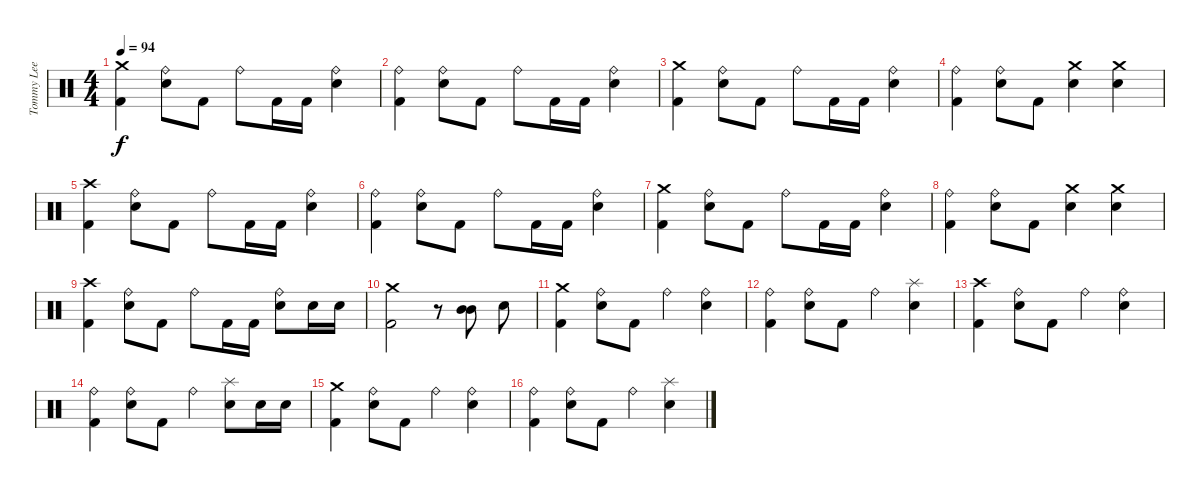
\track ("Tommy Lee" "Tommy Lee") {instrument percussion}
\staff {score}
\articulation defaults
\ts (4 4)
\tempo 94
\clef neutral
\ks c
("Crash medium (hit)" "Kick (hit) 2").4{dy f} ("Ride (bell)" "Snare (hit) 2").8 "Kick (hit) 2".8 "Ride (bell)".8 "Kick (hit) 2".16 "Kick (hit) 2".16 ("Ride (bell)" "Snare (hit) 2").4 |
("Ride (bell)" "Kick (hit) 2").4 ("Ride (bell)" "Snare (hit) 2").8 "Kick (hit) 2".8 "Ride (bell)".8 "Kick (hit) 2".16 "Kick (hit) 2".16 ("Ride (bell)" "Snare (hit) 2").4 |
("Crash medium (hit)" "Kick (hit) 2").4 ("Ride (bell)" "Snare (hit) 2").8 "Kick (hit) 2".8 "Ride (bell)".8 "Kick (hit) 2".16 "Kick (hit) 2".16 ("Ride (bell)" "Snare (hit) 2").4 |
("Ride (bell)" "Kick (hit) 2").4 ("Ride (bell)" "Snare (hit) 2").8 "Kick (hit) 2".8 ("Crash medium (hit)" "Snare (hit) 2").4 ("Crash medium (hit)" "Snare (hit) 2").4 |
("Crash high (hit)" "Kick (hit) 2").4 ("Ride (bell)" "Snare (hit) 2").8 "Kick (hit) 2".8 "Ride (bell)".8 "Kick (hit) 2".16 "Kick (hit) 2".16 ("Ride (bell)" "Snare (hit) 2").4 |
("Ride (bell)" "Kick (hit) 2").4 ("Ride (bell)" "Snare (hit) 2").8 "Kick (hit) 2".8 "Ride (bell)".8 "Kick (hit) 2".16 "Kick (hit) 2".16 ("Ride (bell)" "Snare (hit) 2").4 |
("Crash medium (hit)" "Kick (hit) 2").4 ("Ride (bell)" "Snare (hit) 2").8 "Kick (hit) 2".8 "Ride (bell)".8 "Kick (hit) 2".16 "Kick (hit) 2".16 ("Ride (bell)" "Snare (hit) 2").4 |
("Ride (bell)" "Kick (hit) 2").4 ("Ride (bell)" "Snare (hit) 2").8 "Kick (hit) 2".8 ("Crash medium (hit)" "Snare (hit) 2").4 ("Crash medium (hit)" "Snare (hit) 2").4 |
("Crash high (hit)" "Kick (hit) 2").4 ("Ride (bell)" "Snare (hit) 2").8 "Kick (hit) 2".8 "Ride (bell)".8 "Kick (hit) 2".16 "Kick (hit) 2".16 ("Ride (bell)" "Snare (hit) 2").8 "Snare (hit) 2".16 "Snare (hit) 2".16 |
("Crash medium (hit)" "Kick (hit) 2").2 r.8 ("Mid Tom (hit)" "Mid Tom (hit)").8{bd 120} "Snare (hit) 2".8 |
("Crash medium (hit)" "Kick (hit) 2").4 ("Ride (bell)" "Snare (hit) 2").8 "Kick (hit) 2".8 "Ride (bell)".4 ("Ride (bell)" "Snare (hit) 2").4 |
("Ride (bell)" "Kick (hit) 2").4 ("Ride (bell)" "Snare (hit) 2").8 "Kick (hit) 2".8 "Ride (bell)".4 ("Splash (hit)" "Snare (hit) 2").4 |
("Crash high (hit)" "Kick (hit) 2").4 ("Ride (bell)" "Snare (hit) 2").8 "Kick (hit) 2".8 "Ride (bell)".4 ("Ride (bell)" "Snare (hit) 2").4 |
("Ride (bell)" "Kick (hit) 2").4 ("Ride (bell)" "Snare (hit) 2").8 "Kick (hit) 2".8 "Ride (bell)".4 ("Splash (hit)" "Snare (hit) 2").8 "Snare (hit) 2".16 "Snare (hit) 2".16 |
("Crash medium (hit)" "Kick (hit) 2").4 ("Ride (bell)" "Snare (hit) 2").8 "Kick (hit) 2".8 "Ride (bell)".4 ("Ride (bell)" "Snare (hit) 2").4 |
("Ride (bell)" "Kick (hit) 2").4 ("Ride (bell)" "Snare (hit) 2").8 "Kick (hit) 2".8 "Ride (bell)".4 ("Splash (hit)" "Snare (hit) 2").4
